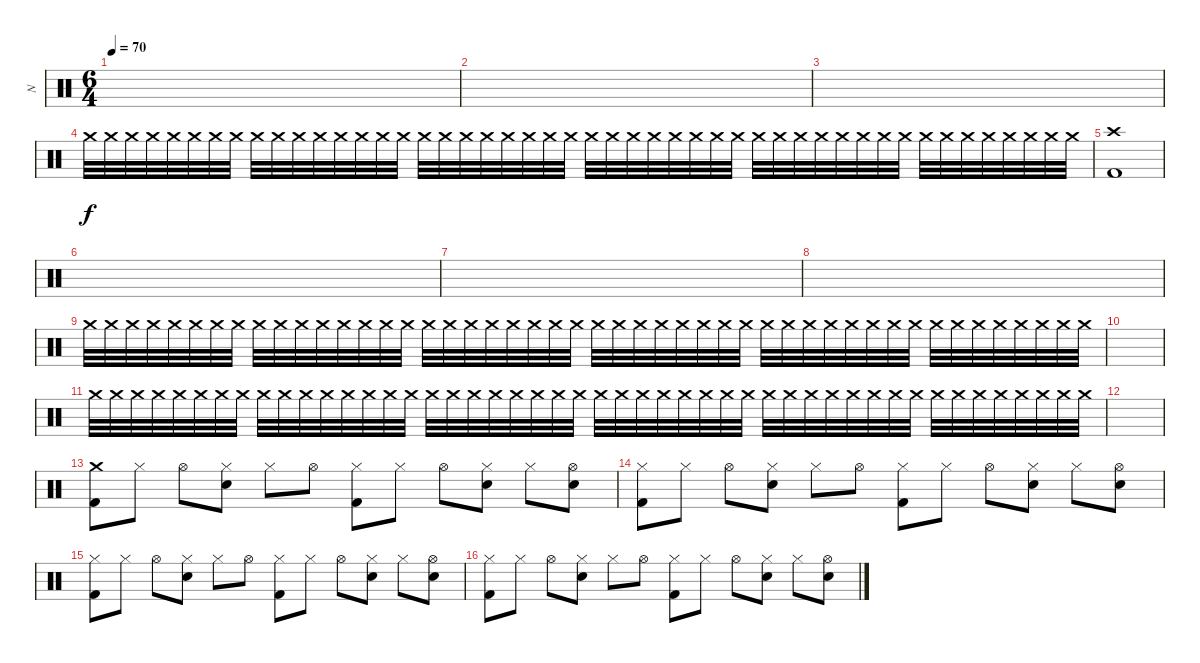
\track ("N" "N") {instrument percussion}
\staff {score}
\articulation defaults
\ts (6 4)
\tempo 70
\clef neutral
\ks c
|
|
|
"Crash medium (hit)".32{volume 14} "Crash medium (hit)".32 "Crash medium (hit)".32 "Crash medium (hit)".32 "Crash medium (hit)".32 "Crash medium (hit)".32 "Crash medium (hit)".32 "Crash medium (hit)".32 "Crash medium (hit)".32 "Crash medium (hit)".32 "Crash medium (hit)".32 "Crash medium (hit)".32 "Crash medium (hit)".32 "Crash medium (hit)".32 "Crash medium (hit)".32 "Crash medium (hit)".32 "Crash medium (hit)".32 "Crash medium (hit)".32 "Crash medium (hit)".32 "Crash medium (hit)".32 "Crash medium (hit)".32 "Crash medium (hit)".32 "Crash medium (hit)".32 "Crash medium (hit)".32 "Crash medium (hit)".32 "Crash medium (hit)".32 "Crash medium (hit)".32 "Crash medium (hit)".32 "Crash medium (hit)".32 "Crash medium (hit)".32 "Crash medium (hit)".32 "Crash medium (hit)".32 "Crash medium (hit)".32 "Crash medium (hit)".32 "Crash medium (hit)".32 "Crash medium (hit)".32 "Crash medium (hit)".32 "Crash medium (hit)".32 "Crash medium (hit)".32 "Crash medium (hit)".32 "Crash medium (hit)".32{volume 12} "Crash medium (hit)".32 "Crash medium (hit)".32 "Crash medium (hit)".32 "Crash medium (hit)".32 "Crash medium (hit)".32 "Crash medium (hit)".32 "Crash medium (hit)".32 |
("Crash high (hit)" "Kick (hit) 2").1{volume 16} |
|
|
|
"Crash medium (hit)".32{volume 14} "Crash medium (hit)".32 "Crash medium (hit)".32 "Crash medium (hit)".32 "Crash medium (hit)".32 "Crash medium (hit)".32 "Crash medium (hit)".32 "Crash medium (hit)".32 "Crash medium (hit)".32 "Crash medium (hit)".32 "Crash medium (hit)".32 "Crash medium (hit)".32 "Crash medium (hit)".32 "Crash medium (hit)".32 "Crash medium (hit)".32 "Crash medium (hit)".32 "Crash medium (hit)".32 "Crash medium (hit)".32 "Crash medium (hit)".32 "Crash medium (hit)".32 "Crash medium (hit)".32 "Crash medium (hit)".32 "Crash medium (hit)".32 "Crash medium (hit)".32 "Crash medium (hit)".32 "Crash medium (hit)".32 "Crash medium (hit)".32 "Crash medium (hit)".32 "Crash medium (hit)".32 "Crash medium (hit)".32 "Crash medium (hit)".32 "Crash medium (hit)".32 "Crash medium (hit)".32{volume 0} "Crash medium (hit)".32 "Crash medium (hit)".32 "Crash medium (hit)".32 "Crash medium (hit)".32 "Crash medium (hit)".32 "Crash medium (hit)".32 "Crash medium (hit)".32 "Crash medium (hit)".32 "Crash medium (hit)".32 "Crash medium (hit)".32 "Crash medium (hit)".32 "Crash medium (hit)".32 "Crash medium (hit)".32 "Crash medium (hit)".32 "Crash medium (hit)".32 |
|
"Crash medium (hit)".32{volume 14} "Crash medium (hit)".32 "Crash medium (hit)".32 "Crash medium (hit)".32 "Crash medium (hit)".32 "Crash medium (hit)".32 "Crash medium (hit)".32 "Crash medium (hit)".32 "Crash medium (hit)".32 "Crash medium (hit)".32 "Crash medium (hit)".32 "Crash medium (hit)".32 "Crash medium (hit)".32 "Crash medium (hit)".32 "Crash medium (hit)".32 "Crash medium (hit)".32 "Crash medium (hit)".32 "Crash medium (hit)".32 "Crash medium (hit)".32 "Crash medium (hit)".32 "Crash medium (hit)".32 "Crash medium (hit)".32 "Crash medium (hit)".32 "Crash medium (hit)".32 "Crash medium (hit)".32 "Crash medium (hit)".32 "Crash medium (hit)".32 "Crash medium (hit)".32 "Crash medium (hit)".32 "Crash medium (hit)".32 "Crash medium (hit)".32 "Crash medium (hit)".32 "Crash medium (hit)".32{volume 0} "Crash medium (hit)".32 "Crash medium (hit)".32 "Crash medium (hit)".32 "Crash medium (hit)".32 "Crash medium (hit)".32 "Crash medium (hit)".32 "Crash medium (hit)".32 "Crash medium (hit)".32 "Crash medium (hit)".32 "Crash medium (hit)".32 "Crash medium (hit)".32 "Crash medium (hit)".32 "Crash medium (hit)".32 "Crash medium (hit)".32 "Crash medium (hit)".32 |
|
\section ("" " ")
("Crash medium (hit)" "Kick (hit) 2").8{volume 16} "Hi-Hat (closed)".8 "Hi-Hat (open)".8 ("Hi-Hat (closed)" "Electric Snare (hit)").8 "Hi-Hat (closed)".8 "Hi-Hat (open)".8 ("Hi-Hat (closed)" "Kick (hit) 2").8 "Hi-Hat (closed)".8 "Hi-Hat (open)".8 ("Hi-Hat (closed)" "Electric Snare (hit)").8 "Hi-Hat (closed)".8 ("Hi-Hat (open)" "Electric Snare (hit)").8 |
("Hi-Hat (closed)" "Kick (hit) 2").8 "Hi-Hat (closed)".8 "Hi-Hat (open)".8 ("Hi-Hat (closed)" "Electric Snare (hit)").8 "Hi-Hat (closed)".8 "Hi-Hat (open)".8 ("Hi-Hat (closed)" "Kick (hit) 2").8 "Hi-Hat (closed)".8 "Hi-Hat (open)".8 ("Hi-Hat (closed)" "Electric Snare (hit)").8 "Hi-Hat (closed)".8 ("Hi-Hat (open)" "Electric Snare (hit)").8 |
("Hi-Hat (closed)" "Kick (hit) 2").8 "Hi-Hat (closed)".8 "Hi-Hat (open)".8 ("Hi-Hat (closed)" "Electric Snare (hit)").8 "Hi-Hat (closed)".8 "Hi-Hat (open)".8 ("Hi-Hat (closed)" "Kick (hit) 2").8 "Hi-Hat (closed)".8 "Hi-Hat (open)".8 ("Hi-Hat (closed)" "Electric Snare (hit)").8 "Hi-Hat (closed)".8 ("Hi-Hat (open)" "Electric Snare (hit)").8 |
("Hi-Hat (closed)" "Kick (hit) 2").8 "Hi-Hat (closed)".8 "Hi-Hat (open)".8 ("Hi-Hat (closed)" "Electric Snare (hit)").8 "Hi-Hat (closed)".8 "Hi-Hat (open)".8 ("Hi-Hat (closed)" "Kick (hit) 2").8 "Hi-Hat (closed)".8 "Hi-Hat (open)".8 ("Hi-Hat (closed)" "Electric Snare (hit)").8 "Hi-Hat (closed)".8 ("Hi-Hat (open)" "Electric Snare (hit)").8
